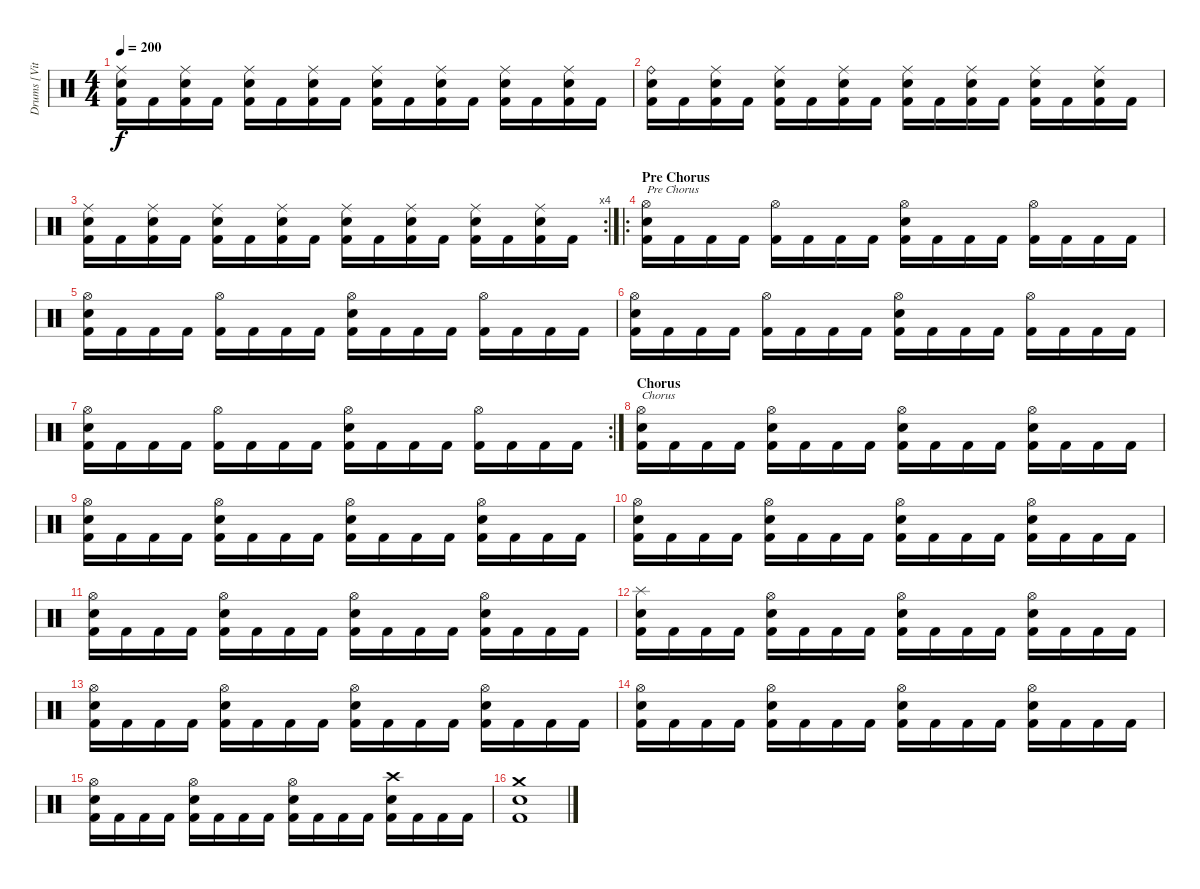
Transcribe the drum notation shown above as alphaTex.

\track ("Drums [Vitek]" "Drums [Vit") {instrument percussion}
\staff {score}
\articulation defaults
\ts (4 4)
\tempo 200
\clef neutral
\ks c
("Ride (middle)" "Electric Snare (hit)" "Kick (hit) 2").16{dy f} "Kick (hit) 2".16 ("Ride (middle)" "Electric Snare (hit)" "Kick (hit) 2").16 "Kick (hit) 2".16 ("Ride (middle)" "Electric Snare (hit)" "Kick (hit) 2").16 "Kick (hit) 2".16 ("Ride (middle)" "Electric Snare (hit)" "Kick (hit) 2").16 "Kick (hit) 2".16 ("Ride (middle)" "Electric Snare (hit)" "Kick (hit) 2").16 "Kick (hit) 2".16 ("Ride (middle)" "Electric Snare (hit)" "Kick (hit) 2").16 "Kick (hit) 2".16 ("Ride (middle)" "Electric Snare (hit)" "Kick (hit) 2").16 "Kick (hit) 2".16 ("Ride (middle)" "Electric Snare (hit)" "Kick (hit) 2").16 "Kick (hit) 2".16 |
("Ride (bell)" "Electric Snare (hit)" "Kick (hit) 2").16 "Kick (hit) 2".16 ("Ride (middle)" "Electric Snare (hit)" "Kick (hit) 2").16 "Kick (hit) 2".16 ("Ride (middle)" "Electric Snare (hit)" "Kick (hit) 2").16 "Kick (hit) 2".16 ("Ride (middle)" "Electric Snare (hit)" "Kick (hit) 2").16 "Kick (hit) 2".16 ("Ride (middle)" "Electric Snare (hit)" "Kick (hit) 2").16 "Kick (hit) 2".16 ("Ride (middle)" "Electric Snare (hit)" "Kick (hit) 2").16 "Kick (hit) 2".16 ("Ride (middle)" "Electric Snare (hit)" "Kick (hit) 2").16 "Kick (hit) 2".16 ("Ride (middle)" "Electric Snare (hit)" "Kick (hit) 2").16 "Kick (hit) 2".16 |
\rc 4
("Ride (middle)" "Electric Snare (hit)" "Kick (hit) 2").16 "Kick (hit) 2".16 ("Ride (middle)" "Electric Snare (hit)" "Kick (hit) 2").16 "Kick (hit) 2".16 ("Ride (middle)" "Electric Snare (hit)" "Kick (hit) 2").16 "Kick (hit) 2".16 ("Ride (middle)" "Electric Snare (hit)" "Kick (hit) 2").16 "Kick (hit) 2".16 ("Ride (middle)" "Electric Snare (hit)" "Kick (hit) 2").16 "Kick (hit) 2".16 ("Ride (middle)" "Electric Snare (hit)" "Kick (hit) 2").16 "Kick (hit) 2".16 ("Ride (middle)" "Electric Snare (hit)" "Kick (hit) 2").16 "Kick (hit) 2".16 ("Ride (middle)" "Electric Snare (hit)" "Kick (hit) 2").16 "Kick (hit) 2".16 |
\ro
\section ("" "Pre Chorus")
("Hi-Hat (open)" "Electric Snare (hit)" "Kick (hit) 2").16{txt "Pre Chorus"} "Kick (hit) 2".16 "Kick (hit) 2".16 "Kick (hit) 2".16 ("Hi-Hat (open)" "Kick (hit) 2").16 "Kick (hit) 2".16 "Kick (hit) 2".16 "Kick (hit) 2".16 ("Hi-Hat (open)" "Electric Snare (hit)" "Kick (hit) 2").16 "Kick (hit) 2".16 "Kick (hit) 2".16 "Kick (hit) 2".16 ("Hi-Hat (open)" "Kick (hit) 2").16 "Kick (hit) 2".16 "Kick (hit) 2".16 "Kick (hit) 2".16 |
("Hi-Hat (open)" "Electric Snare (hit)" "Kick (hit) 2").16 "Kick (hit) 2".16 "Kick (hit) 2".16 "Kick (hit) 2".16 ("Hi-Hat (open)" "Kick (hit) 2").16 "Kick (hit) 2".16 "Kick (hit) 2".16 "Kick (hit) 2".16 ("Hi-Hat (open)" "Electric Snare (hit)" "Kick (hit) 2").16 "Kick (hit) 2".16 "Kick (hit) 2".16 "Kick (hit) 2".16 ("Hi-Hat (open)" "Kick (hit) 2").16 "Kick (hit) 2".16 "Kick (hit) 2".16 "Kick (hit) 2".16 |
("Hi-Hat (open)" "Electric Snare (hit)" "Kick (hit) 2").16 "Kick (hit) 2".16 "Kick (hit) 2".16 "Kick (hit) 2".16 ("Hi-Hat (open)" "Kick (hit) 2").16 "Kick (hit) 2".16 "Kick (hit) 2".16 "Kick (hit) 2".16 ("Hi-Hat (open)" "Electric Snare (hit)" "Kick (hit) 2").16 "Kick (hit) 2".16 "Kick (hit) 2".16 "Kick (hit) 2".16 ("Hi-Hat (open)" "Kick (hit) 2").16 "Kick (hit) 2".16 "Kick (hit) 2".16 "Kick (hit) 2".16 |
\rc 2
("Hi-Hat (open)" "Electric Snare (hit)" "Kick (hit) 2").16 "Kick (hit) 2".16 "Kick (hit) 2".16 "Kick (hit) 2".16 ("Hi-Hat (open)" "Kick (hit) 2").16 "Kick (hit) 2".16 "Kick (hit) 2".16 "Kick (hit) 2".16 ("Hi-Hat (open)" "Electric Snare (hit)" "Kick (hit) 2").16 "Kick (hit) 2".16 "Kick (hit) 2".16 "Kick (hit) 2".16 ("Hi-Hat (open)" "Kick (hit) 2").16 "Kick (hit) 2".16 "Kick (hit) 2".16 "Kick (hit) 2".16 |
\section ("" "Chorus")
("Hi-Hat (open)" "Electric Snare (hit)" "Kick (hit) 2").16{txt "Chorus"} "Kick (hit) 2".16 "Kick (hit) 2".16 "Kick (hit) 2".16 ("Hi-Hat (open)" "Electric Snare (hit)" "Kick (hit) 2").16 "Kick (hit) 2".16 "Kick (hit) 2".16 "Kick (hit) 2".16 ("Hi-Hat (open)" "Electric Snare (hit)" "Kick (hit) 2").16 "Kick (hit) 2".16 "Kick (hit) 2".16 "Kick (hit) 2".16 ("Hi-Hat (open)" "Electric Snare (hit)" "Kick (hit) 2").16 "Kick (hit) 2".16 "Kick (hit) 2".16 "Kick (hit) 2".16 |
("Hi-Hat (open)" "Electric Snare (hit)" "Kick (hit) 2").16 "Kick (hit) 2".16 "Kick (hit) 2".16 "Kick (hit) 2".16 ("Hi-Hat (open)" "Electric Snare (hit)" "Kick (hit) 2").16 "Kick (hit) 2".16 "Kick (hit) 2".16 "Kick (hit) 2".16 ("Hi-Hat (open)" "Electric Snare (hit)" "Kick (hit) 2").16 "Kick (hit) 2".16 "Kick (hit) 2".16 "Kick (hit) 2".16 ("Hi-Hat (open)" "Electric Snare (hit)" "Kick (hit) 2").16 "Kick (hit) 2".16 "Kick (hit) 2".16 "Kick (hit) 2".16 |
("Hi-Hat (open)" "Electric Snare (hit)" "Kick (hit) 2").16 "Kick (hit) 2".16 "Kick (hit) 2".16 "Kick (hit) 2".16 ("Hi-Hat (open)" "Electric Snare (hit)" "Kick (hit) 2").16 "Kick (hit) 2".16 "Kick (hit) 2".16 "Kick (hit) 2".16 ("Hi-Hat (open)" "Electric Snare (hit)" "Kick (hit) 2").16 "Kick (hit) 2".16 "Kick (hit) 2".16 "Kick (hit) 2".16 ("Hi-Hat (open)" "Electric Snare (hit)" "Kick (hit) 2").16 "Kick (hit) 2".16 "Kick (hit) 2".16 "Kick (hit) 2".16 |
("Hi-Hat (open)" "Electric Snare (hit)" "Kick (hit) 2").16 "Kick (hit) 2".16 "Kick (hit) 2".16 "Kick (hit) 2".16 ("Hi-Hat (open)" "Electric Snare (hit)" "Kick (hit) 2").16 "Kick (hit) 2".16 "Kick (hit) 2".16 "Kick (hit) 2".16 ("Hi-Hat (open)" "Electric Snare (hit)" "Kick (hit) 2").16 "Kick (hit) 2".16 "Kick (hit) 2".16 "Kick (hit) 2".16 ("Hi-Hat (open)" "Electric Snare (hit)" "Kick (hit) 2").16 "Kick (hit) 2".16 "Kick (hit) 2".16 "Kick (hit) 2".16 |
("Splash (hit)" "Electric Snare (hit)" "Kick (hit) 2").16 "Kick (hit) 2".16 "Kick (hit) 2".16 "Kick (hit) 2".16 ("Hi-Hat (open)" "Electric Snare (hit)" "Kick (hit) 2").16 "Kick (hit) 2".16 "Kick (hit) 2".16 "Kick (hit) 2".16 ("Hi-Hat (open)" "Electric Snare (hit)" "Kick (hit) 2").16 "Kick (hit) 2".16 "Kick (hit) 2".16 "Kick (hit) 2".16 ("Hi-Hat (open)" "Electric Snare (hit)" "Kick (hit) 2").16 "Kick (hit) 2".16 "Kick (hit) 2".16 "Kick (hit) 2".16 |
("Hi-Hat (open)" "Electric Snare (hit)" "Kick (hit) 2").16 "Kick (hit) 2".16 "Kick (hit) 2".16 "Kick (hit) 2".16 ("Hi-Hat (open)" "Electric Snare (hit)" "Kick (hit) 2").16 "Kick (hit) 2".16 "Kick (hit) 2".16 "Kick (hit) 2".16 ("Hi-Hat (open)" "Electric Snare (hit)" "Kick (hit) 2").16 "Kick (hit) 2".16 "Kick (hit) 2".16 "Kick (hit) 2".16 ("Hi-Hat (open)" "Electric Snare (hit)" "Kick (hit) 2").16 "Kick (hit) 2".16 "Kick (hit) 2".16 "Kick (hit) 2".16 |
("Hi-Hat (open)" "Electric Snare (hit)" "Kick (hit) 2").16 "Kick (hit) 2".16 "Kick (hit) 2".16 "Kick (hit) 2".16 ("Hi-Hat (open)" "Electric Snare (hit)" "Kick (hit) 2").16 "Kick (hit) 2".16 "Kick (hit) 2".16 "Kick (hit) 2".16 ("Hi-Hat (open)" "Electric Snare (hit)" "Kick (hit) 2").16 "Kick (hit) 2".16 "Kick (hit) 2".16 "Kick (hit) 2".16 ("Hi-Hat (open)" "Electric Snare (hit)" "Kick (hit) 2").16 "Kick (hit) 2".16 "Kick (hit) 2".16 "Kick (hit) 2".16 |
("Hi-Hat (open)" "Electric Snare (hit)" "Kick (hit) 2").16 "Kick (hit) 2".16 "Kick (hit) 2".16 "Kick (hit) 2".16 ("Hi-Hat (open)" "Electric Snare (hit)" "Kick (hit) 2").16 "Kick (hit) 2".16 "Kick (hit) 2".16 "Kick (hit) 2".16 ("Hi-Hat (open)" "Electric Snare (hit)" "Kick (hit) 2").16 "Kick (hit) 2".16 "Kick (hit) 2".16 "Kick (hit) 2".16 ("Crash high (hit)" "Electric Snare (hit)" "Kick (hit) 2").16 "Kick (hit) 2".16 "Kick (hit) 2".16 "Kick (hit) 2".16 |
("Crash medium (hit)" "Electric Snare (hit)" "Kick (hit) 2").1
